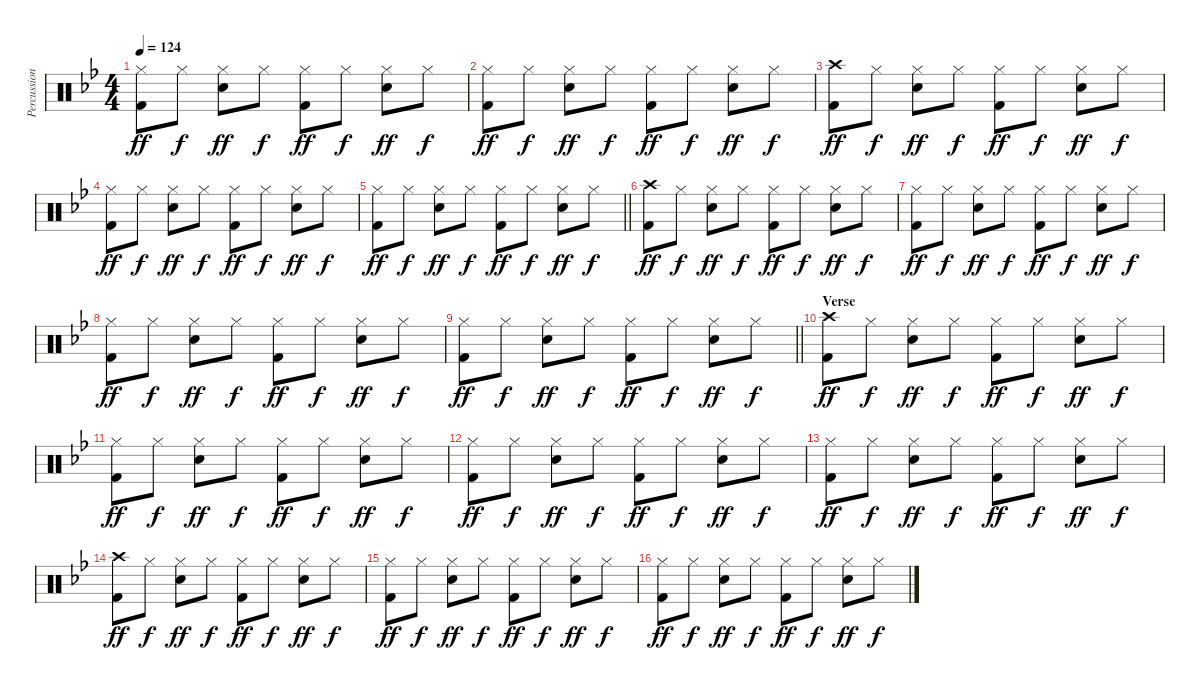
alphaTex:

\track ("Percussion" "Percussion") {instrument percussion}
\staff {score}
\articulation defaults
\ts (4 4)
\tempo 124
\clef neutral
\ks gminor
("Hi-Hat (closed)" "Kick (hit) 2").8{dy ff} "Hi-Hat (closed)".8{dy f} ("Hi-Hat (closed)" "Electric Snare (hit)").8{dy ff} "Hi-Hat (closed)".8{dy f} ("Hi-Hat (closed)" "Kick (hit) 2").8{dy ff} "Hi-Hat (closed)".8{dy f} ("Hi-Hat (closed)" "Electric Snare (hit)").8{dy ff} "Hi-Hat (closed)".8{dy f} |
("Hi-Hat (closed)" "Kick (hit) 2").8{dy ff} "Hi-Hat (closed)".8{dy f} ("Hi-Hat (closed)" "Electric Snare (hit)").8{dy ff} "Hi-Hat (closed)".8{dy f} ("Hi-Hat (closed)" "Kick (hit) 2").8{dy ff} "Hi-Hat (closed)".8{dy f} ("Hi-Hat (closed)" "Electric Snare (hit)").8{dy ff} "Hi-Hat (closed)".8{dy f} |
("Crash high (hit)" "Kick (hit) 2").8{dy ff} "Hi-Hat (closed)".8{dy f} ("Hi-Hat (closed)" "Electric Snare (hit)").8{dy ff} "Hi-Hat (closed)".8{dy f} ("Hi-Hat (closed)" "Kick (hit) 2").8{dy ff} "Hi-Hat (closed)".8{dy f} ("Hi-Hat (closed)" "Electric Snare (hit)").8{dy ff} "Hi-Hat (closed)".8{dy f} |
("Hi-Hat (closed)" "Kick (hit) 2").8{dy ff} "Hi-Hat (closed)".8{dy f} ("Hi-Hat (closed)" "Electric Snare (hit)").8{dy ff} "Hi-Hat (closed)".8{dy f} ("Hi-Hat (closed)" "Kick (hit) 2").8{dy ff} "Hi-Hat (closed)".8{dy f} ("Hi-Hat (closed)" "Electric Snare (hit)").8{dy ff} "Hi-Hat (closed)".8{dy f} |
\barLineRight lightlight
("Hi-Hat (closed)" "Kick (hit) 2").8{dy ff} "Hi-Hat (closed)".8{dy f} ("Hi-Hat (closed)" "Electric Snare (hit)").8{dy ff} "Hi-Hat (closed)".8{dy f} ("Hi-Hat (closed)" "Kick (hit) 2").8{dy ff} "Hi-Hat (closed)".8{dy f} ("Hi-Hat (closed)" "Electric Snare (hit)").8{dy ff} "Hi-Hat (closed)".8{dy f} |
("Crash high (hit)" "Kick (hit) 2").8{dy ff} "Hi-Hat (closed)".8{dy f} ("Hi-Hat (closed)" "Electric Snare (hit)").8{dy ff} "Hi-Hat (closed)".8{dy f} ("Hi-Hat (closed)" "Kick (hit) 2").8{dy ff} "Hi-Hat (closed)".8{dy f} ("Hi-Hat (closed)" "Electric Snare (hit)").8{dy ff} "Hi-Hat (closed)".8{dy f} |
("Hi-Hat (closed)" "Kick (hit) 2").8{dy ff} "Hi-Hat (closed)".8{dy f} ("Hi-Hat (closed)" "Electric Snare (hit)").8{dy ff} "Hi-Hat (closed)".8{dy f} ("Hi-Hat (closed)" "Kick (hit) 2").8{dy ff} "Hi-Hat (closed)".8{dy f} ("Hi-Hat (closed)" "Electric Snare (hit)").8{dy ff} "Hi-Hat (closed)".8{dy f} |
("Hi-Hat (closed)" "Kick (hit) 2").8{dy ff} "Hi-Hat (closed)".8{dy f} ("Hi-Hat (closed)" "Electric Snare (hit)").8{dy ff} "Hi-Hat (closed)".8{dy f} ("Hi-Hat (closed)" "Kick (hit) 2").8{dy ff} "Hi-Hat (closed)".8{dy f} ("Hi-Hat (closed)" "Electric Snare (hit)").8{dy ff} "Hi-Hat (closed)".8{dy f} |
\barLineRight lightlight
("Hi-Hat (closed)" "Kick (hit) 2").8{dy ff} "Hi-Hat (closed)".8{dy f} ("Hi-Hat (closed)" "Electric Snare (hit)").8{dy ff} "Hi-Hat (closed)".8{dy f} ("Hi-Hat (closed)" "Kick (hit) 2").8{dy ff} "Hi-Hat (closed)".8{dy f} ("Hi-Hat (closed)" "Electric Snare (hit)").8{dy ff} "Hi-Hat (closed)".8{dy f} |
\section ("" "Verse")
("Crash high (hit)" "Kick (hit) 2").8{dy ff} "Hi-Hat (closed)".8{dy f} ("Hi-Hat (closed)" "Electric Snare (hit)").8{dy ff} "Hi-Hat (closed)".8{dy f} ("Hi-Hat (closed)" "Kick (hit) 2").8{dy ff} "Hi-Hat (closed)".8{dy f} ("Hi-Hat (closed)" "Electric Snare (hit)").8{dy ff} "Hi-Hat (closed)".8{dy f} |
("Hi-Hat (closed)" "Kick (hit) 2").8{dy ff} "Hi-Hat (closed)".8{dy f} ("Hi-Hat (closed)" "Electric Snare (hit)").8{dy ff} "Hi-Hat (closed)".8{dy f} ("Hi-Hat (closed)" "Kick (hit) 2").8{dy ff} "Hi-Hat (closed)".8{dy f} ("Hi-Hat (closed)" "Electric Snare (hit)").8{dy ff} "Hi-Hat (closed)".8{dy f} |
("Hi-Hat (closed)" "Kick (hit) 2").8{dy ff} "Hi-Hat (closed)".8{dy f} ("Hi-Hat (closed)" "Electric Snare (hit)").8{dy ff} "Hi-Hat (closed)".8{dy f} ("Hi-Hat (closed)" "Kick (hit) 2").8{dy ff} "Hi-Hat (closed)".8{dy f} ("Hi-Hat (closed)" "Electric Snare (hit)").8{dy ff} "Hi-Hat (closed)".8{dy f} |
("Hi-Hat (closed)" "Kick (hit) 2").8{dy ff} "Hi-Hat (closed)".8{dy f} ("Hi-Hat (closed)" "Electric Snare (hit)").8{dy ff} "Hi-Hat (closed)".8{dy f} ("Hi-Hat (closed)" "Kick (hit) 2").8{dy ff} "Hi-Hat (closed)".8{dy f} ("Hi-Hat (closed)" "Electric Snare (hit)").8{dy ff} "Hi-Hat (closed)".8{dy f} |
("Crash high (hit)" "Kick (hit) 2").8{dy ff} "Hi-Hat (closed)".8{dy f} ("Hi-Hat (closed)" "Electric Snare (hit)").8{dy ff} "Hi-Hat (closed)".8{dy f} ("Hi-Hat (closed)" "Kick (hit) 2").8{dy ff} "Hi-Hat (closed)".8{dy f} ("Hi-Hat (closed)" "Electric Snare (hit)").8{dy ff} "Hi-Hat (closed)".8{dy f} |
("Hi-Hat (closed)" "Kick (hit) 2").8{dy ff} "Hi-Hat (closed)".8{dy f} ("Hi-Hat (closed)" "Electric Snare (hit)").8{dy ff} "Hi-Hat (closed)".8{dy f} ("Hi-Hat (closed)" "Kick (hit) 2").8{dy ff} "Hi-Hat (closed)".8{dy f} ("Hi-Hat (closed)" "Electric Snare (hit)").8{dy ff} "Hi-Hat (closed)".8{dy f} |
("Hi-Hat (closed)" "Kick (hit) 2").8{dy ff} "Hi-Hat (closed)".8{dy f} ("Hi-Hat (closed)" "Electric Snare (hit)").8{dy ff} "Hi-Hat (closed)".8{dy f} ("Hi-Hat (closed)" "Kick (hit) 2").8{dy ff} "Hi-Hat (closed)".8{dy f} ("Hi-Hat (closed)" "Electric Snare (hit)").8{dy ff} "Hi-Hat (closed)".8{dy f}
